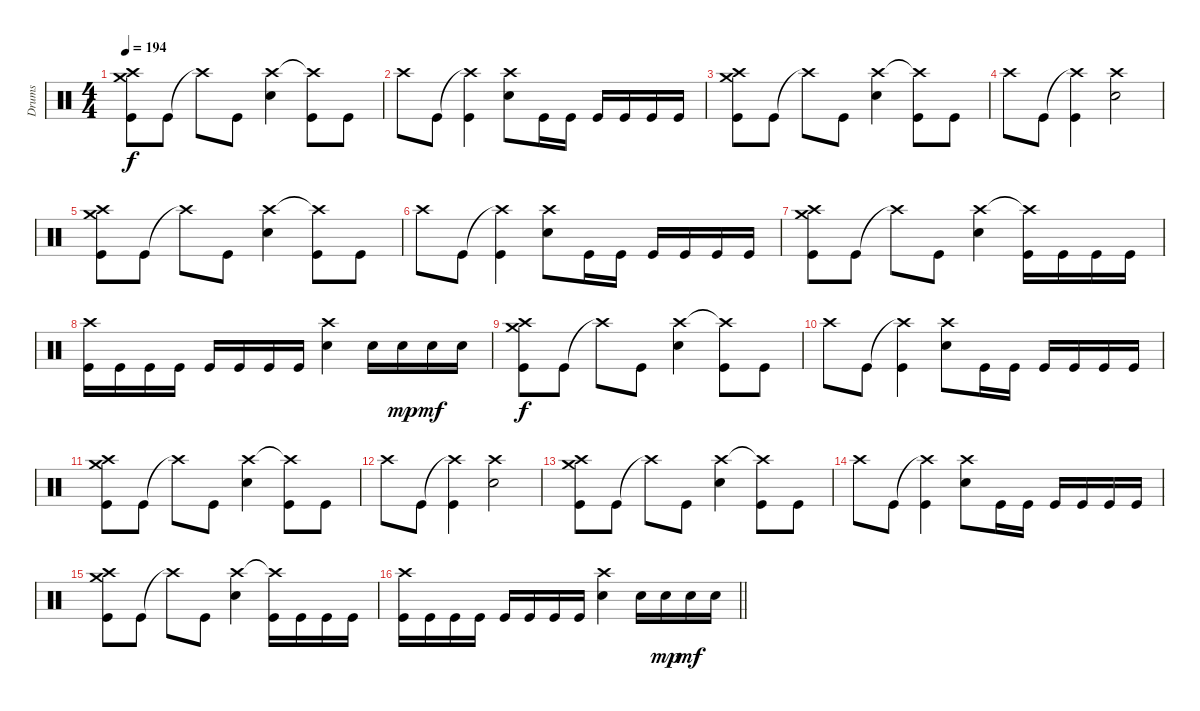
\track ("Drums" "Drums") {instrument percussion}
\staff {score}
\articulation defaults
\ts (4 4)
\tempo 194
\clef neutral
\ks c
("Crash high (hit)" "Crash medium (hit)" "Kick (hit)").8{dy f} "Kick (hit)".8 "Crash high (hit)"{t}.8 "Kick (hit)".8 ("Crash high (hit)" "Snare (hit) 2").4 ("Crash high (hit)"{t} "Kick (hit)").8 "Kick (hit)".8 |
"Crash high (hit)".8 "Kick (hit)".8 ("Crash high (hit)"{t} "Kick (hit)").4 ("Crash high (hit)" "Snare (hit) 2").8 "Kick (hit)".16 "Kick (hit)".16 "Kick (hit)".16 "Kick (hit)".16 "Kick (hit)".16 "Kick (hit)".16 |
("Crash high (hit)" "Crash medium (hit)" "Kick (hit)").8 "Kick (hit)".8 "Crash high (hit)"{t}.8 "Kick (hit)".8 ("Crash high (hit)" "Snare (hit) 2").4 ("Crash high (hit)"{t} "Kick (hit)").8 "Kick (hit)".8 |
"Crash high (hit)".8 "Kick (hit)".8 ("Crash high (hit)"{t} "Kick (hit)").4 ("Crash high (hit)" "Snare (hit) 2").2 |
("Crash high (hit)" "Crash medium (hit)" "Kick (hit)").8 "Kick (hit)".8 "Crash high (hit)"{t}.8 "Kick (hit)".8 ("Crash high (hit)" "Snare (hit) 2").4 ("Crash high (hit)"{t} "Kick (hit)").8 "Kick (hit)".8 |
"Crash high (hit)".8 "Kick (hit)".8 ("Crash high (hit)"{t} "Kick (hit)").4 ("Crash high (hit)" "Snare (hit) 2").8 "Kick (hit)".16 "Kick (hit)".16 "Kick (hit)".16 "Kick (hit)".16 "Kick (hit)".16 "Kick (hit)".16 |
("Crash high (hit)" "Crash medium (hit)" "Kick (hit)").8 "Kick (hit)".8 "Crash high (hit)"{t}.8 "Kick (hit)".8 ("Crash high (hit)" "Snare (hit) 2").4 ("Crash high (hit)"{t} "Kick (hit)").16 "Kick (hit)".16 "Kick (hit)".16 "Kick (hit)".16 |
("Crash high (hit)" "Kick (hit)").16 "Kick (hit)".16 "Kick (hit)".16 "Kick (hit)".16 "Kick (hit)".16 "Kick (hit)".16 "Kick (hit)".16 "Kick (hit)".16 ("Crash high (hit)" "Snare (hit) 2").4 "Snare (hit) 2".16 "Snare (hit) 2".16{dy mp} "Snare (hit) 2".16{dy mf} "Snare (hit) 2".16 |
("Crash high (hit)" "Crash medium (hit)" "Kick (hit)").8{dy f} "Kick (hit)".8 "Crash high (hit)"{t}.8 "Kick (hit)".8 ("Crash high (hit)" "Snare (hit) 2").4 ("Crash high (hit)"{t} "Kick (hit)").8 "Kick (hit)".8 |
"Crash high (hit)".8 "Kick (hit)".8 ("Crash high (hit)"{t} "Kick (hit)").4 ("Crash high (hit)" "Snare (hit) 2").8 "Kick (hit)".16 "Kick (hit)".16 "Kick (hit)".16 "Kick (hit)".16 "Kick (hit)".16 "Kick (hit)".16 |
("Crash high (hit)" "Crash medium (hit)" "Kick (hit)").8 "Kick (hit)".8 "Crash high (hit)"{t}.8 "Kick (hit)".8 ("Crash high (hit)" "Snare (hit) 2").4 ("Crash high (hit)"{t} "Kick (hit)").8 "Kick (hit)".8 |
"Crash high (hit)".8 "Kick (hit)".8 ("Crash high (hit)"{t} "Kick (hit)").4 ("Crash high (hit)" "Snare (hit) 2").2 |
("Crash high (hit)" "Crash medium (hit)" "Kick (hit)").8 "Kick (hit)".8 "Crash high (hit)"{t}.8 "Kick (hit)".8 ("Crash high (hit)" "Snare (hit) 2").4 ("Crash high (hit)"{t} "Kick (hit)").8 "Kick (hit)".8 |
"Crash high (hit)".8 "Kick (hit)".8 ("Crash high (hit)"{t} "Kick (hit)").4 ("Crash high (hit)" "Snare (hit) 2").8 "Kick (hit)".16 "Kick (hit)".16 "Kick (hit)".16 "Kick (hit)".16 "Kick (hit)".16 "Kick (hit)".16 |
("Crash high (hit)" "Crash medium (hit)" "Kick (hit)").8 "Kick (hit)".8 "Crash high (hit)"{t}.8 "Kick (hit)".8 ("Crash high (hit)" "Snare (hit) 2").4 ("Crash high (hit)"{t} "Kick (hit)").16 "Kick (hit)".16 "Kick (hit)".16 "Kick (hit)".16 |
\barLineRight lightlight
("Crash high (hit)" "Kick (hit)").16 "Kick (hit)".16 "Kick (hit)".16 "Kick (hit)".16 "Kick (hit)".16 "Kick (hit)".16 "Kick (hit)".16 "Kick (hit)".16 ("Crash high (hit)" "Snare (hit) 2").4 "Snare (hit) 2".16 "Snare (hit) 2".16{dy mp} "Snare (hit) 2".16{dy mf} "Snare (hit) 2".16
